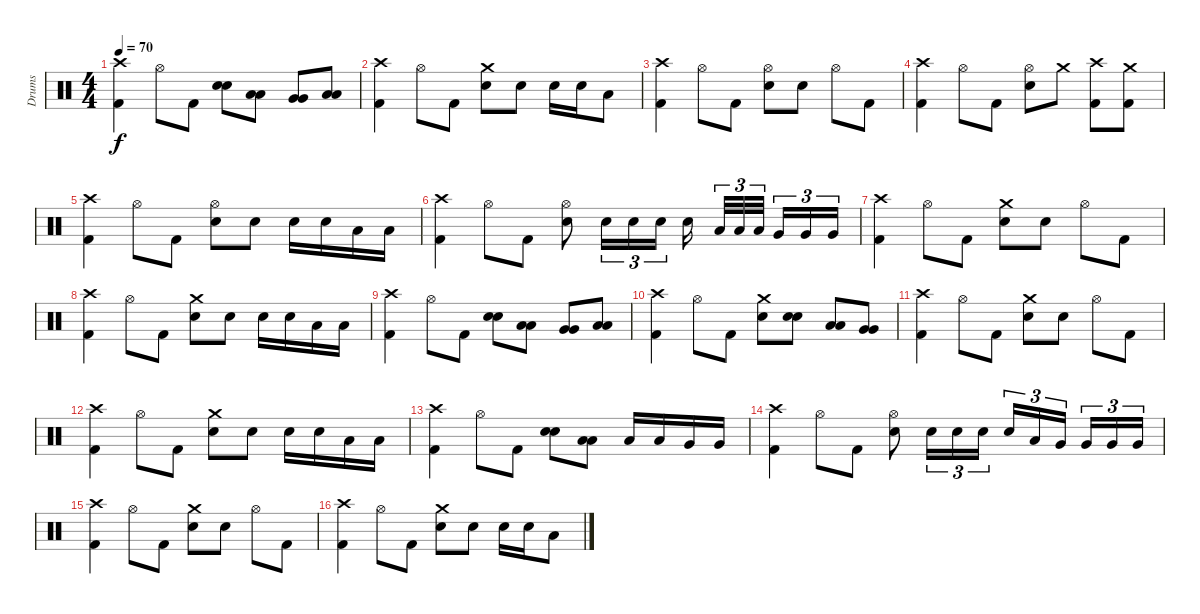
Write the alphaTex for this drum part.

\track ("Drums" "Drums") {instrument percussion}
\staff {score}
\articulation defaults
\ts (4 4)
\tempo 70
\clef neutral
\ks c
("Crash high (hit)" "Kick (hit) 2").4{dy f} "Hi-Hat (open)".8 "Kick (hit) 2".8 ("Electric Snare (hit)" "Electric Snare (hit)").8{bu 60} ("Low Tom (hit)" "Low Tom (hit)").8{bu 60} ("Very Low Tom (hit)" "Very Low Tom (hit)").8{bu 60} ("Low Floor Tom (hit)" "Low Floor Tom (hit)").8{bu 60} |
("Crash high (hit)" "Kick (hit) 2").4 "Hi-Hat (open)".8 "Kick (hit) 2".8 ("Crash medium (hit)" "Electric Snare (hit)").8 "Electric Snare (hit)".8 "Electric Snare (hit)".16 "Electric Snare (hit)".16 "Low Tom (hit)".8 |
("Crash high (hit)" "Kick (hit) 2").4 "Hi-Hat (open)".8 "Kick (hit) 2".8 ("Hi-Hat (open)" "Electric Snare (hit)").8 "Electric Snare (hit)".8 "Hi-Hat (open)".8 "Kick (hit) 2".8 |
("Crash high (hit)" "Kick (hit) 2").4 "Hi-Hat (open)".8 "Kick (hit) 2".8 ("Hi-Hat (open)" "Electric Snare (hit)").8 "Crash medium (hit)".8 ("Crash high (hit)" "Kick (hit) 2").8 ("Crash medium (hit)" "Kick (hit) 2").8 |
("Crash high (hit)" "Kick (hit) 2").4 "Hi-Hat (open)".8 "Kick (hit) 2".8 ("Hi-Hat (open)" "Electric Snare (hit)").8 "Electric Snare (hit)".8 "Electric Snare (hit)".16 "Electric Snare (hit)".16 "Low Tom (hit)".16 "Low Tom (hit)".16 |
("Crash high (hit)" "Kick (hit) 2").4 "Hi-Hat (open)".8 "Kick (hit) 2".8 ("Hi-Hat (open)" "Electric Snare (hit)").8 "Electric Snare (hit)".16{tu (3 2)} "Electric Snare (hit)".16{tu (3 2)} "Electric Snare (hit)".16{tu (3 2)} "Electric Snare (hit)".16 "Low Tom (hit)".32{tu (3 2)} "Low Tom (hit)".32{tu (3 2)} "Low Tom (hit)".32{tu (3 2)} "Very Low Tom (hit)".16{tu (3 2)} "Very Low Tom (hit)".16{tu (3 2)} "Very Low Tom (hit)".16{tu (3 2)} |
("Crash high (hit)" "Kick (hit) 2").4 "Hi-Hat (open)".8 "Kick (hit) 2".8 ("Crash medium (hit)" "Electric Snare (hit)").8 "Electric Snare (hit)".8 "Hi-Hat (open)".8 "Kick (hit) 2".8 |
("Crash high (hit)" "Kick (hit) 2").4 "Hi-Hat (open)".8 "Kick (hit) 2".8 ("Crash medium (hit)" "Electric Snare (hit)").8 "Electric Snare (hit)".8 "Electric Snare (hit)".16 "Electric Snare (hit)".16 "Low Tom (hit)".16 "Low Tom (hit)".16 |
("Crash high (hit)" "Kick (hit) 2").4 "Hi-Hat (open)".8 "Kick (hit) 2".8 ("Electric Snare (hit)" "Electric Snare (hit)").8{bu 60} ("Low Tom (hit)" "Low Tom (hit)").8{bu 60} ("Very Low Tom (hit)" "Very Low Tom (hit)").8{bu 60} ("Low Floor Tom (hit)" "Low Floor Tom (hit)").8{bu 60} |
("Crash high (hit)" "Kick (hit) 2").4 "Hi-Hat (open)".8 "Kick (hit) 2".8 ("Crash medium (hit)" "Electric Snare (hit)").8 ("Electric Snare (hit)" "Electric Snare (hit)").8{bu 60} ("Low Tom (hit)" "Low Tom (hit)").8{bu 60} ("Very Low Tom (hit)" "Very Low Tom (hit)").8{bu 60} |
("Crash high (hit)" "Kick (hit) 2").4 "Hi-Hat (open)".8 "Kick (hit) 2".8 ("Crash medium (hit)" "Electric Snare (hit)").8 "Electric Snare (hit)".8 "Hi-Hat (open)".8 "Kick (hit) 2".8 |
("Crash high (hit)" "Kick (hit) 2").4 "Hi-Hat (open)".8 "Kick (hit) 2".8 ("Crash medium (hit)" "Electric Snare (hit)").8 "Electric Snare (hit)".8 "Electric Snare (hit)".16 "Electric Snare (hit)".16 "Low Tom (hit)".16 "Low Tom (hit)".16 |
("Crash high (hit)" "Kick (hit) 2").4 "Hi-Hat (open)".8 "Kick (hit) 2".8 ("Electric Snare (hit)" "Electric Snare (hit)").8{bu 60} ("Low Tom (hit)" "Low Tom (hit)").8{bu 60} "Low Tom (hit)".16 "Low Tom (hit)".16 "Very Low Tom (hit)".16 "Very Low Tom (hit)".16 |
("Crash high (hit)" "Kick (hit) 2").4 "Hi-Hat (open)".8 "Kick (hit) 2".8 ("Hi-Hat (open)" "Electric Snare (hit)").8 "Electric Snare (hit)".16{tu (3 2)} "Electric Snare (hit)".16{tu (3 2)} "Electric Snare (hit)".16{tu (3 2)} "Electric Snare (hit)".16{tu (3 2)} "Low Tom (hit)".16{tu (3 2)} "Very Low Tom (hit)".16{tu (3 2)} "Very Low Tom (hit)".16{tu (3 2)} "Very Low Tom (hit)".16{tu (3 2)} "Very Low Tom (hit)".16{tu (3 2)} |
("Crash high (hit)" "Kick (hit) 2").4 "Hi-Hat (open)".8 "Kick (hit) 2".8 ("Crash medium (hit)" "Electric Snare (hit)").8 "Electric Snare (hit)".8 "Hi-Hat (open)".8 "Kick (hit) 2".8 |
("Crash high (hit)" "Kick (hit) 2").4 "Hi-Hat (open)".8 "Kick (hit) 2".8 ("Crash medium (hit)" "Electric Snare (hit)").8 "Electric Snare (hit)".8 "Electric Snare (hit)".16 "Electric Snare (hit)".16 "Low Tom (hit)".8
